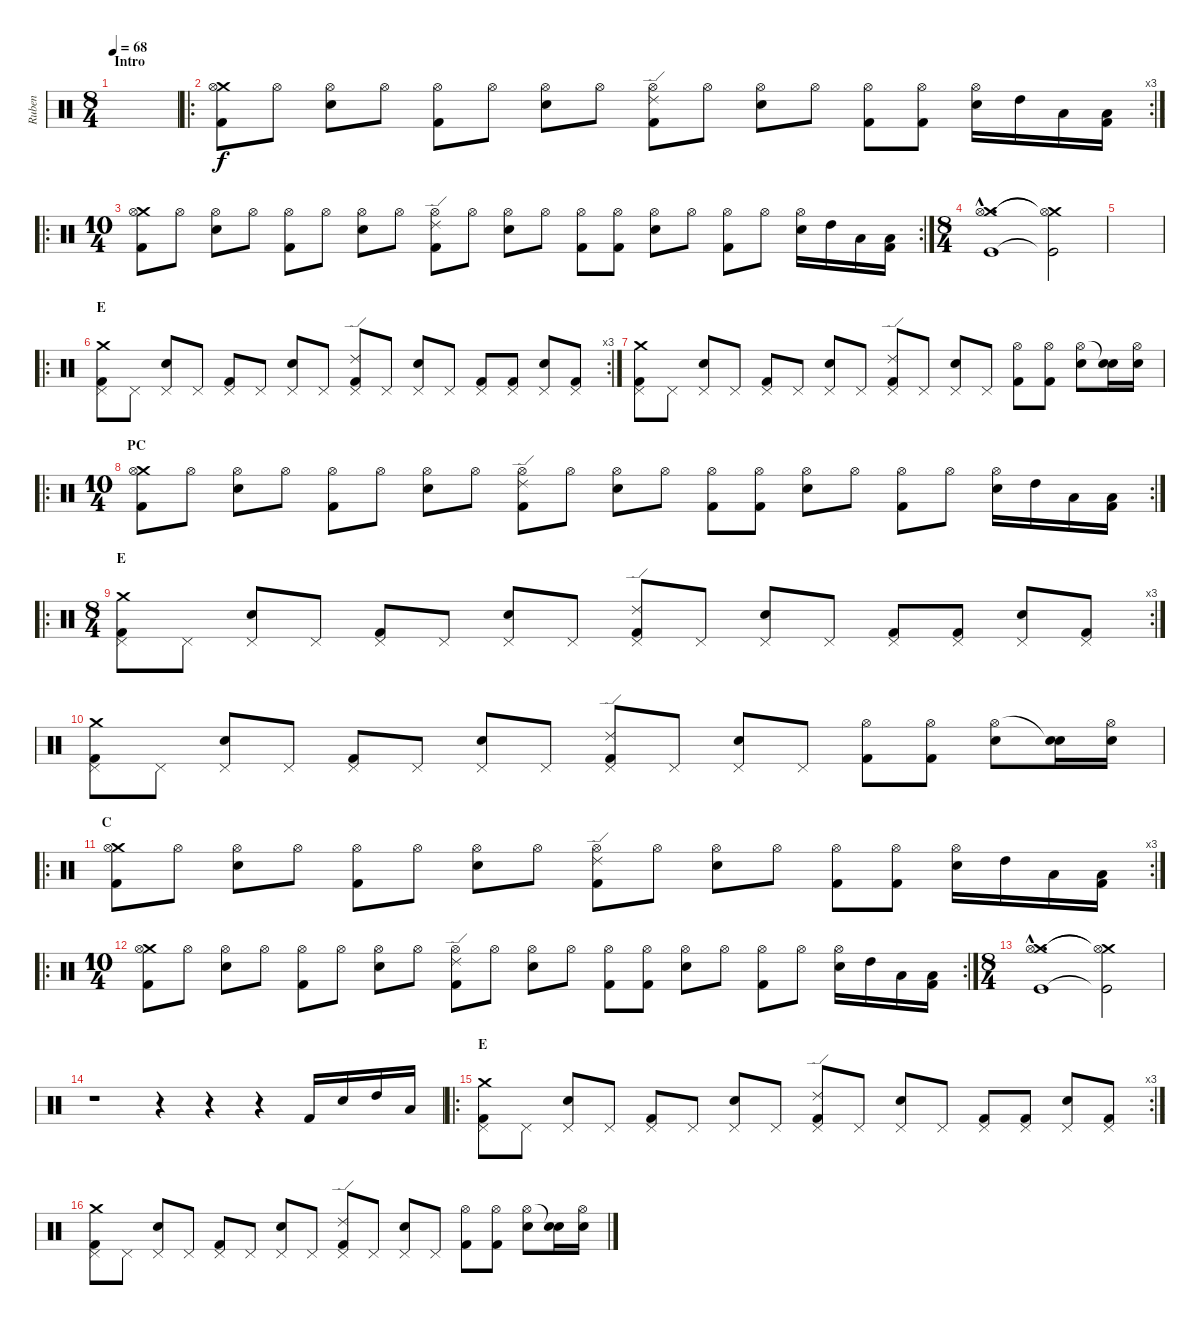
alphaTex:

\track ("Ruben" "Ruben") {instrument percussion}
\staff {score}
\articulation defaults
\ts (8 4)
\section ("" "Intro")
\tempo 68
\clef neutral
\ks c
|
\ro
\rc 3
("Crash medium (hit)" "Hi-Hat (open)" "Kick (hit) 2").8 "Hi-Hat (open)".8 ("Hi-Hat (open)" "Electric Snare (hit)").8 "Hi-Hat (open)".8 ("Hi-Hat (open)" "Kick (hit) 2").8 "Hi-Hat (open)".8 ("Hi-Hat (open)" "Electric Snare (hit)").8 "Hi-Hat (open)".8 ("Ride (edge) 2" "Hi-Hat (open)" "Kick (hit) 2").8 "Hi-Hat (open)".8 ("Hi-Hat (open)" "Electric Snare (hit)").8 "Hi-Hat (open)".8 ("Hi-Hat (open)" "Kick (hit) 2").8 ("Hi-Hat (open)" "Kick (hit) 2").8 ("Hi-Hat (open)" "Electric Snare (hit)").16 "High Tom (hit)".16 "Low Tom (hit)".16 ("Low Floor Tom (hit)" "Kick (hit) 2").16 |
\ro
\rc 2
\ts (10 4)
("Crash medium (hit)" "Hi-Hat (open)" "Kick (hit) 2").8 "Hi-Hat (open)".8 ("Hi-Hat (open)" "Electric Snare (hit)").8 "Hi-Hat (open)".8 ("Hi-Hat (open)" "Kick (hit) 2").8 "Hi-Hat (open)".8 ("Hi-Hat (open)" "Electric Snare (hit)").8 "Hi-Hat (open)".8 ("Ride (edge) 2" "Hi-Hat (open)" "Kick (hit) 2").8 "Hi-Hat (open)".8 ("Hi-Hat (open)" "Electric Snare (hit)").8 "Hi-Hat (open)".8 ("Hi-Hat (open)" "Kick (hit) 2").8 ("Hi-Hat (open)" "Kick (hit) 2").8 ("Hi-Hat (open)" "Electric Snare (hit)").8 "Hi-Hat (open)".8 ("Hi-Hat (open)" "Kick (hit) 2").8 "Hi-Hat (open)".8 ("Hi-Hat (open)" "Electric Snare (hit)").16 "High Tom (hit)".16 "Low Tom (hit)".16 ("Low Floor Tom (hit)" "Kick (hit) 2").16 |
\ts (8 4)
("Crash medium (hit)"{hac} "Hi-Hat (open)"{hac} "Kick (hit)"{hac}).1{d} ("Crash medium (hit)"{t} "Hi-Hat (open)"{t} "Kick (hit)"{t}).2 |
|
\ro
\rc 3
\section ("" "E")
("Crash medium (hit)" "Pedal Hi-Hat (hit)" "Kick (hit) 2").8 "Pedal Hi-Hat (hit)".8 ("Pedal Hi-Hat (hit)" "Electric Snare (hit)").8 "Pedal Hi-Hat (hit)".8 ("Pedal Hi-Hat (hit)" "Kick (hit) 2").8 "Pedal Hi-Hat (hit)".8 ("Pedal Hi-Hat (hit)" "Electric Snare (hit)").8 "Pedal Hi-Hat (hit)".8 ("Ride (edge) 2" "Pedal Hi-Hat (hit)" "Kick (hit) 2").8 "Pedal Hi-Hat (hit)".8 ("Pedal Hi-Hat (hit)" "Electric Snare (hit)").8 "Pedal Hi-Hat (hit)".8 ("Pedal Hi-Hat (hit)" "Kick (hit) 2").8 ("Pedal Hi-Hat (hit)" "Kick (hit) 2").8 ("Pedal Hi-Hat (hit)" "Electric Snare (hit)").8 ("Pedal Hi-Hat (hit)" "Kick (hit) 2").8 |
("Crash medium (hit)" "Pedal Hi-Hat (hit)" "Kick (hit) 2").8 "Pedal Hi-Hat (hit)".8 ("Pedal Hi-Hat (hit)" "Electric Snare (hit)").8 "Pedal Hi-Hat (hit)".8 ("Pedal Hi-Hat (hit)" "Kick (hit) 2").8 "Pedal Hi-Hat (hit)".8 ("Pedal Hi-Hat (hit)" "Electric Snare (hit)").8 "Pedal Hi-Hat (hit)".8 ("Ride (edge) 2" "Pedal Hi-Hat (hit)" "Kick (hit) 2").8 "Pedal Hi-Hat (hit)".8 ("Pedal Hi-Hat (hit)" "Electric Snare (hit)").8 "Pedal Hi-Hat (hit)".8 ("Hi-Hat (open)" "Kick (hit) 2").8 ("Hi-Hat (open)" "Kick (hit) 2").8 ("Hi-Hat (open)" "Electric Snare (hit)").8 ("Snare (hit)"{t} "Electric Snare (hit)").16 ("Hi-Hat (open)" "Electric Snare (hit)").16 |
\ro
\rc 2
\ts (10 4)
\section ("" "PC")
("Crash medium (hit)" "Hi-Hat (open)" "Kick (hit) 2").8 "Hi-Hat (open)".8 ("Hi-Hat (open)" "Electric Snare (hit)").8 "Hi-Hat (open)".8 ("Hi-Hat (open)" "Kick (hit) 2").8 "Hi-Hat (open)".8 ("Hi-Hat (open)" "Electric Snare (hit)").8 "Hi-Hat (open)".8 ("Ride (edge) 2" "Hi-Hat (open)" "Kick (hit) 2").8 "Hi-Hat (open)".8 ("Hi-Hat (open)" "Electric Snare (hit)").8 "Hi-Hat (open)".8 ("Hi-Hat (open)" "Kick (hit) 2").8 ("Hi-Hat (open)" "Kick (hit) 2").8 ("Hi-Hat (open)" "Electric Snare (hit)").8 "Hi-Hat (open)".8 ("Hi-Hat (open)" "Kick (hit) 2").8 "Hi-Hat (open)".8 ("Hi-Hat (open)" "Electric Snare (hit)").16 "High Tom (hit)".16 "Low Tom (hit)".16 ("Low Floor Tom (hit)" "Kick (hit) 2").16 |
\ro
\rc 3
\ts (8 4)
\section ("" "E")
("Crash medium (hit)" "Pedal Hi-Hat (hit)" "Kick (hit) 2").8 "Pedal Hi-Hat (hit)".8 ("Pedal Hi-Hat (hit)" "Electric Snare (hit)").8 "Pedal Hi-Hat (hit)".8 ("Pedal Hi-Hat (hit)" "Kick (hit) 2").8 "Pedal Hi-Hat (hit)".8 ("Pedal Hi-Hat (hit)" "Electric Snare (hit)").8 "Pedal Hi-Hat (hit)".8 ("Ride (edge) 2" "Pedal Hi-Hat (hit)" "Kick (hit) 2").8 "Pedal Hi-Hat (hit)".8 ("Pedal Hi-Hat (hit)" "Electric Snare (hit)").8 "Pedal Hi-Hat (hit)".8 ("Pedal Hi-Hat (hit)" "Kick (hit) 2").8 ("Pedal Hi-Hat (hit)" "Kick (hit) 2").8 ("Pedal Hi-Hat (hit)" "Electric Snare (hit)").8 ("Pedal Hi-Hat (hit)" "Kick (hit) 2").8 |
("Crash medium (hit)" "Pedal Hi-Hat (hit)" "Kick (hit) 2").8 "Pedal Hi-Hat (hit)".8 ("Pedal Hi-Hat (hit)" "Electric Snare (hit)").8 "Pedal Hi-Hat (hit)".8 ("Pedal Hi-Hat (hit)" "Kick (hit) 2").8 "Pedal Hi-Hat (hit)".8 ("Pedal Hi-Hat (hit)" "Electric Snare (hit)").8 "Pedal Hi-Hat (hit)".8 ("Ride (edge) 2" "Pedal Hi-Hat (hit)" "Kick (hit) 2").8 "Pedal Hi-Hat (hit)".8 ("Pedal Hi-Hat (hit)" "Electric Snare (hit)").8 "Pedal Hi-Hat (hit)".8 ("Hi-Hat (open)" "Kick (hit) 2").8 ("Hi-Hat (open)" "Kick (hit) 2").8 ("Hi-Hat (open)" "Electric Snare (hit)").8 ("Snare (hit)"{t} "Electric Snare (hit)").16 ("Hi-Hat (open)" "Electric Snare (hit)").16 |
\ro
\rc 3
\section ("" "C")
("Crash medium (hit)" "Hi-Hat (open)" "Kick (hit) 2").8 "Hi-Hat (open)".8 ("Hi-Hat (open)" "Electric Snare (hit)").8 "Hi-Hat (open)".8 ("Hi-Hat (open)" "Kick (hit) 2").8 "Hi-Hat (open)".8 ("Hi-Hat (open)" "Electric Snare (hit)").8 "Hi-Hat (open)".8 ("Ride (edge) 2" "Hi-Hat (open)" "Kick (hit) 2").8 "Hi-Hat (open)".8 ("Hi-Hat (open)" "Electric Snare (hit)").8 "Hi-Hat (open)".8 ("Hi-Hat (open)" "Kick (hit) 2").8 ("Hi-Hat (open)" "Kick (hit) 2").8 ("Hi-Hat (open)" "Electric Snare (hit)").16 "High Tom (hit)".16 "Low Tom (hit)".16 ("Low Floor Tom (hit)" "Kick (hit) 2").16 |
\ro
\rc 2
\ts (10 4)
("Crash medium (hit)" "Hi-Hat (open)" "Kick (hit) 2").8 "Hi-Hat (open)".8 ("Hi-Hat (open)" "Electric Snare (hit)").8 "Hi-Hat (open)".8 ("Hi-Hat (open)" "Kick (hit) 2").8 "Hi-Hat (open)".8 ("Hi-Hat (open)" "Electric Snare (hit)").8 "Hi-Hat (open)".8 ("Ride (edge) 2" "Hi-Hat (open)" "Kick (hit) 2").8 "Hi-Hat (open)".8 ("Hi-Hat (open)" "Electric Snare (hit)").8 "Hi-Hat (open)".8 ("Hi-Hat (open)" "Kick (hit) 2").8 ("Hi-Hat (open)" "Kick (hit) 2").8 ("Hi-Hat (open)" "Electric Snare (hit)").8 "Hi-Hat (open)".8 ("Hi-Hat (open)" "Kick (hit) 2").8 "Hi-Hat (open)".8 ("Hi-Hat (open)" "Electric Snare (hit)").16 "High Tom (hit)".16 "Low Tom (hit)".16 ("Low Floor Tom (hit)" "Kick (hit) 2").16 |
\ts (8 4)
("Crash medium (hit)"{hac} "Hi-Hat (open)"{hac} "Kick (hit)"{hac}).1{d} ("Crash medium (hit)"{t} "Hi-Hat (open)"{t} "Kick (hit)"{t}).2 |
r.1 r.4 r.4 r.4 "Kick (hit) 2".16 "Electric Snare (hit)".16 "High Tom (hit)".16 "Low Tom (hit)".16 |
\ro
\rc 3
\section ("" "E")
("Crash medium (hit)" "Pedal Hi-Hat (hit)" "Kick (hit) 2").8 "Pedal Hi-Hat (hit)".8 ("Pedal Hi-Hat (hit)" "Electric Snare (hit)").8 "Pedal Hi-Hat (hit)".8 ("Pedal Hi-Hat (hit)" "Kick (hit) 2").8 "Pedal Hi-Hat (hit)".8 ("Pedal Hi-Hat (hit)" "Electric Snare (hit)").8 "Pedal Hi-Hat (hit)".8 ("Ride (edge) 2" "Pedal Hi-Hat (hit)" "Kick (hit) 2").8 "Pedal Hi-Hat (hit)".8 ("Pedal Hi-Hat (hit)" "Electric Snare (hit)").8 "Pedal Hi-Hat (hit)".8 ("Pedal Hi-Hat (hit)" "Kick (hit) 2").8 ("Pedal Hi-Hat (hit)" "Kick (hit) 2").8 ("Pedal Hi-Hat (hit)" "Electric Snare (hit)").8 ("Pedal Hi-Hat (hit)" "Kick (hit) 2").8 |
("Crash medium (hit)" "Pedal Hi-Hat (hit)" "Kick (hit) 2").8 "Pedal Hi-Hat (hit)".8 ("Pedal Hi-Hat (hit)" "Electric Snare (hit)").8 "Pedal Hi-Hat (hit)".8 ("Pedal Hi-Hat (hit)" "Kick (hit) 2").8 "Pedal Hi-Hat (hit)".8 ("Pedal Hi-Hat (hit)" "Electric Snare (hit)").8 "Pedal Hi-Hat (hit)".8 ("Ride (edge) 2" "Pedal Hi-Hat (hit)" "Kick (hit) 2").8 "Pedal Hi-Hat (hit)".8 ("Pedal Hi-Hat (hit)" "Electric Snare (hit)").8 "Pedal Hi-Hat (hit)".8 ("Hi-Hat (open)" "Kick (hit) 2").8 ("Hi-Hat (open)" "Kick (hit) 2").8 ("Hi-Hat (open)" "Electric Snare (hit)").8 ("Snare (hit)"{t} "Electric Snare (hit)").16 ("Hi-Hat (open)" "Electric Snare (hit)").16
